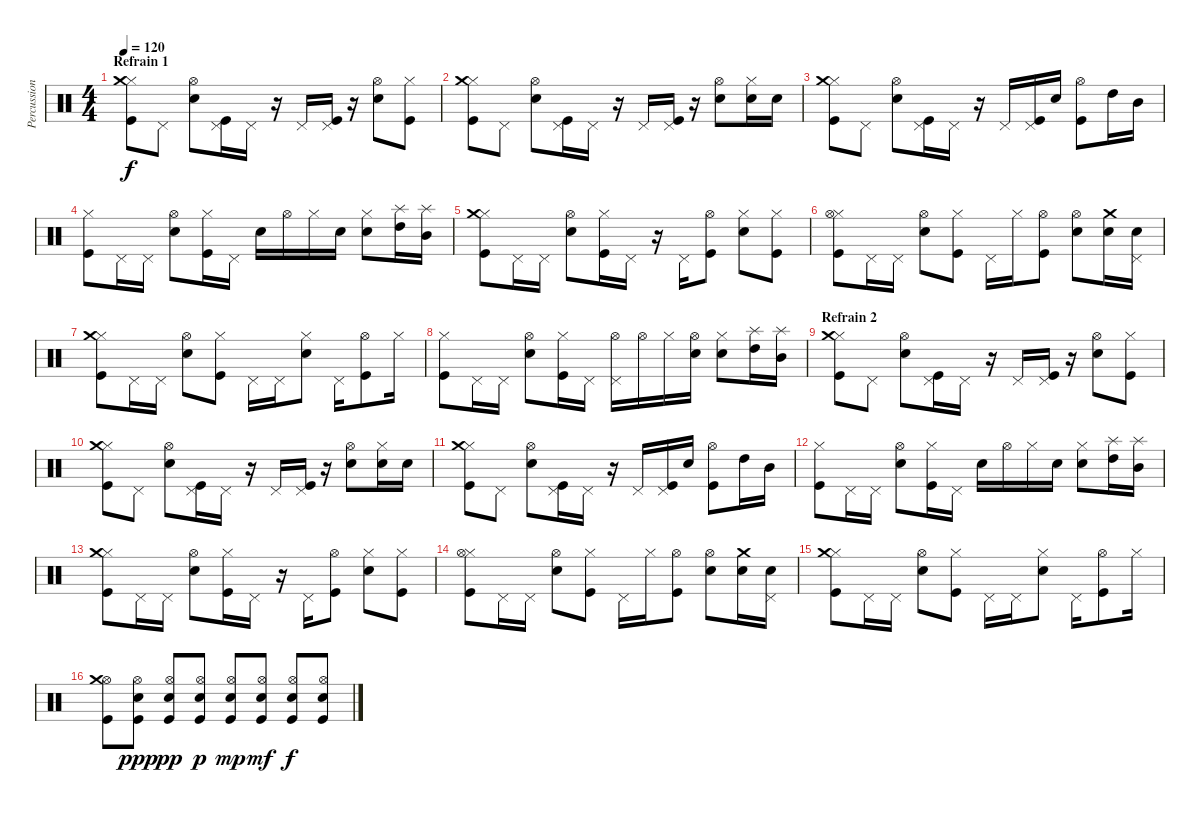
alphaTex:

\track ("Percussions" "Percussion") {instrument percussion}
\staff {score}
\articulation defaults
\ts (4 4)
\section ("" "Refrain 1")
\tempo 120
\clef neutral
\ks c
("Hi-Hat (closed)" "Crash medium (hit)" "Kick (hit)").8{dy f} "Pedal Hi-Hat (hit)".8 ("Hi-Hat (open)" "Electric Snare (hit)").8 ("Pedal Hi-Hat (hit)" "Kick (hit)").16 "Pedal Hi-Hat (hit)".16 r.16 "Pedal Hi-Hat (hit)".16 ("Pedal Hi-Hat (hit)" "Kick (hit)").16 r.16 ("Hi-Hat (open)" "Electric Snare (hit)").8 ("Hi-Hat (closed)" "Kick (hit)").8 |
("Hi-Hat (closed)" "Crash medium (hit)" "Kick (hit)").8 "Pedal Hi-Hat (hit)".8 ("Hi-Hat (open)" "Electric Snare (hit)").8 ("Pedal Hi-Hat (hit)" "Kick (hit)").16 "Pedal Hi-Hat (hit)".16 r.16 "Pedal Hi-Hat (hit)".16 ("Pedal Hi-Hat (hit)" "Kick (hit)").16 r.16 ("Hi-Hat (open)" "Electric Snare (hit)").8 ("Hi-Hat (closed)" "Electric Snare (hit)").16 "Electric Snare (hit)".16 |
("Hi-Hat (closed)" "Crash medium (hit)" "Kick (hit)").8 "Pedal Hi-Hat (hit)".8 ("Hi-Hat (open)" "Electric Snare (hit)").8 ("Pedal Hi-Hat (hit)" "Kick (hit)").16 "Pedal Hi-Hat (hit)".16 r.16 "Pedal Hi-Hat (hit)".16 ("Pedal Hi-Hat (hit)" "Kick (hit)").16 "Electric Snare (hit)".16 ("Hi-Hat (open)" "Kick (hit)").8 "High Tom (hit)".16 "Mid Tom (hit)".16 |
("Hi-Hat (closed)" "Kick (hit)").8 "Pedal Hi-Hat (hit)".16 "Pedal Hi-Hat (hit)".16 ("Hi-Hat (open)" "Electric Snare (hit)").8 ("Hi-Hat (closed)" "Kick (hit)").16 "Pedal Hi-Hat (hit)".16 "Electric Snare (hit)".16 "Hi-Hat (open)".16 "Hi-Hat (closed)".16 "Electric Snare (hit)".16 ("Hi-Hat (closed)" "Electric Snare (hit)").8 ("Splash (hit)" "High Tom (hit)").16 ("Splash (hit)" "Mid Tom (hit)").16 |
("Hi-Hat (closed)" "Crash medium (hit)" "Kick (hit)").8 "Pedal Hi-Hat (hit)".16 "Pedal Hi-Hat (hit)".16 ("Hi-Hat (open)" "Electric Snare (hit)").8 ("Hi-Hat (closed)" "Kick (hit)").16 "Pedal Hi-Hat (hit)".16 r.16 "Pedal Hi-Hat (hit)".16 ("Hi-Hat (open)" "Kick (hit)").8 ("Hi-Hat (closed)" "Electric Snare (hit)").8 ("Hi-Hat (closed)" "Kick (hit)").8 |
("Hi-Hat (closed)" "Hi-Hat (open)" "Kick (hit)").8 "Pedal Hi-Hat (hit)".16 "Pedal Hi-Hat (hit)".16 ("Hi-Hat (open)" "Electric Snare (hit)").8 ("Hi-Hat (closed)" "Kick (hit)").8 "Pedal Hi-Hat (hit)".16 "Hi-Hat (closed)".16 ("Hi-Hat (open)" "Kick (hit)").8 ("Hi-Hat (open)" "Electric Snare (hit)").8 ("Crash medium (hit)" "Electric Snare (hit)").16 ("Pedal Hi-Hat (hit)" "Electric Snare (hit)").16 |
("Hi-Hat (closed)" "Crash medium (hit)" "Kick (hit)").8 "Pedal Hi-Hat (hit)".16 "Pedal Hi-Hat (hit)".16 ("Hi-Hat (open)" "Electric Snare (hit)").8 ("Hi-Hat (closed)" "Kick (hit)").8 "Pedal Hi-Hat (hit)".16 "Pedal Hi-Hat (hit)".16 ("Hi-Hat (closed)" "Electric Snare (hit)").8 "Pedal Hi-Hat (hit)".16 ("Hi-Hat (open)" "Kick (hit)").8 "Hi-Hat (closed)".16 |
("Hi-Hat (closed)" "Kick (hit)").8 "Pedal Hi-Hat (hit)".16 "Pedal Hi-Hat (hit)".16 ("Hi-Hat (open)" "Electric Snare (hit)").8 ("Hi-Hat (closed)" "Kick (hit)").16 "Pedal Hi-Hat (hit)".16 ("Hi-Hat (open)" "Pedal Hi-Hat (hit)").16 "Hi-Hat (open)".16 "Hi-Hat (closed)".16 ("Hi-Hat (open)" "Electric Snare (hit)").16 ("Hi-Hat (closed)" "Electric Snare (hit)").8 ("Splash (hit)" "High Tom (hit)").16 ("Splash (hit)" "Mid Tom (hit)").16 |
\section ("" "Refrain 2")
("Hi-Hat (closed)" "Crash medium (hit)" "Kick (hit)").8 "Pedal Hi-Hat (hit)".8 ("Hi-Hat (open)" "Electric Snare (hit)").8 ("Pedal Hi-Hat (hit)" "Kick (hit)").16 "Pedal Hi-Hat (hit)".16 r.16 "Pedal Hi-Hat (hit)".16 ("Pedal Hi-Hat (hit)" "Kick (hit)").16 r.16 ("Hi-Hat (open)" "Electric Snare (hit)").8 ("Hi-Hat (closed)" "Kick (hit)").8 |
("Hi-Hat (closed)" "Crash medium (hit)" "Kick (hit)").8 "Pedal Hi-Hat (hit)".8 ("Hi-Hat (open)" "Electric Snare (hit)").8 ("Pedal Hi-Hat (hit)" "Kick (hit)").16 "Pedal Hi-Hat (hit)".16 r.16 "Pedal Hi-Hat (hit)".16 ("Pedal Hi-Hat (hit)" "Kick (hit)").16 r.16 ("Hi-Hat (open)" "Electric Snare (hit)").8 ("Hi-Hat (closed)" "Electric Snare (hit)").16 "Electric Snare (hit)".16 |
("Hi-Hat (closed)" "Crash medium (hit)" "Kick (hit)").8 "Pedal Hi-Hat (hit)".8 ("Hi-Hat (open)" "Electric Snare (hit)").8 ("Pedal Hi-Hat (hit)" "Kick (hit)").16 "Pedal Hi-Hat (hit)".16 r.16 "Pedal Hi-Hat (hit)".16 ("Pedal Hi-Hat (hit)" "Kick (hit)").16 "Electric Snare (hit)".16 ("Hi-Hat (open)" "Kick (hit)").8 "High Tom (hit)".16 "Mid Tom (hit)".16 |
("Hi-Hat (closed)" "Kick (hit)").8 "Pedal Hi-Hat (hit)".16 "Pedal Hi-Hat (hit)".16 ("Hi-Hat (open)" "Electric Snare (hit)").8 ("Hi-Hat (closed)" "Kick (hit)").16 "Pedal Hi-Hat (hit)".16 "Electric Snare (hit)".16 "Hi-Hat (open)".16 "Hi-Hat (closed)".16 "Electric Snare (hit)".16 ("Hi-Hat (closed)" "Electric Snare (hit)").8 ("Splash (hit)" "High Tom (hit)").16 ("Splash (hit)" "Mid Tom (hit)").16 |
("Hi-Hat (closed)" "Crash medium (hit)" "Kick (hit)").8 "Pedal Hi-Hat (hit)".16 "Pedal Hi-Hat (hit)".16 ("Hi-Hat (open)" "Electric Snare (hit)").8 ("Hi-Hat (closed)" "Kick (hit)").16 "Pedal Hi-Hat (hit)".16 r.16 "Pedal Hi-Hat (hit)".16 ("Hi-Hat (open)" "Kick (hit)").8 ("Hi-Hat (closed)" "Electric Snare (hit)").8 ("Hi-Hat (closed)" "Kick (hit)").8 |
("Hi-Hat (closed)" "Hi-Hat (open)" "Kick (hit)").8 "Pedal Hi-Hat (hit)".16 "Pedal Hi-Hat (hit)".16 ("Hi-Hat (open)" "Electric Snare (hit)").8 ("Hi-Hat (closed)" "Kick (hit)").8 "Pedal Hi-Hat (hit)".16 "Hi-Hat (closed)".16 ("Hi-Hat (open)" "Kick (hit)").8 ("Hi-Hat (open)" "Electric Snare (hit)").8 ("Crash medium (hit)" "Electric Snare (hit)").16 ("Pedal Hi-Hat (hit)" "Electric Snare (hit)").16 |
("Hi-Hat (closed)" "Crash medium (hit)" "Kick (hit)").8 "Pedal Hi-Hat (hit)".16 "Pedal Hi-Hat (hit)".16 ("Hi-Hat (open)" "Electric Snare (hit)").8 ("Hi-Hat (closed)" "Kick (hit)").8 "Pedal Hi-Hat (hit)".16 "Pedal Hi-Hat (hit)".16 ("Hi-Hat (closed)" "Electric Snare (hit)").8 "Pedal Hi-Hat (hit)".16 ("Hi-Hat (open)" "Kick (hit)").8 "Hi-Hat (closed)".16 |
("Hi-Hat (open)" "Crash medium (hit)" "Kick (hit)").8 ("Hi-Hat (open)" "Kick (hit)" "Electric Snare (hit)").8{dy ppp} ("Hi-Hat (open)" "Kick (hit)" "Electric Snare (hit)").8{dy pp} ("Hi-Hat (open)" "Kick (hit)" "Electric Snare (hit)").8{dy p} ("Hi-Hat (open)" "Kick (hit)" "Electric Snare (hit)").8{dy mp} ("Hi-Hat (open)" "Kick (hit)" "Electric Snare (hit)").8{dy mf} ("Hi-Hat (open)" "Electric Snare (hit)" "Kick (hit)").8{dy f} ("Hi-Hat (open)" "Electric Snare (hit)" "Kick (hit)").8
